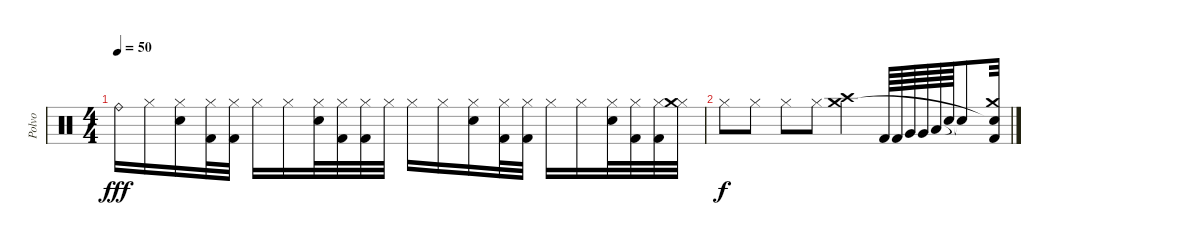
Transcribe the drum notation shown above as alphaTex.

\track ("Polvo" "Polvo") {instrument percussion}
\staff {score}
\articulation defaults
\ts (4 4)
\tempo 50
\clef neutral
\ks c "Ride (bell)".16{dy fff} "Hi-Hat (closed)".16
("Electric Snare (hit)" "Hi-Hat (closed)").16 ("Hi-Hat (closed)" "Kick (hit) 2").32 ("Hi-Hat (closed)" "Kick (hit) 2").32 "Hi-Hat (closed)".16 "Hi-Hat (closed)".16 ("Electric Snare (hit)" "Hi-Hat (closed)").32 ("Hi-Hat (closed)" "Kick (hit) 2").32 ("Hi-Hat (closed)" "Kick (hit) 2").32 "Hi-Hat (closed)".32 "Hi-Hat (closed)".16 "Hi-Hat (closed)".16 ("Electric Snare (hit)" "Hi-Hat (closed)").16 ("Hi-Hat (closed)" "Kick (hit) 2").32 ("Hi-Hat (closed)" "Kick (hit) 2").32 "Hi-Hat (closed)".16 "Hi-Hat (closed)".16 ("Electric Snare (hit)" "Hi-Hat (closed)").32 ("Hi-Hat (closed)" "Kick (hit) 2").32 ("Hi-Hat (closed)" "Kick (hit) 2").32 ("Hi-Hat (closed)" "Crash medium (hit)").32 |
"Hi-Hat (closed)".8{dy f} "Hi-Hat (closed)".8 "Hi-Hat (closed)".8 "Hi-Hat (closed)".8 ("Crash high (hit)" "Crash medium (hit)").4 "Kick (hit) 2".64 "Kick (hit) 2".64 "Very Low Tom (hit)".64 "Very Low Tom (hit)".64 "Low Floor Tom (hit)".64 "Snare (hit)"{t}.64 "Snare (hit)"{t}.8 ("Crash medium (hit)" "Snare (hit)"{t} "Kick (hit) 2").32
